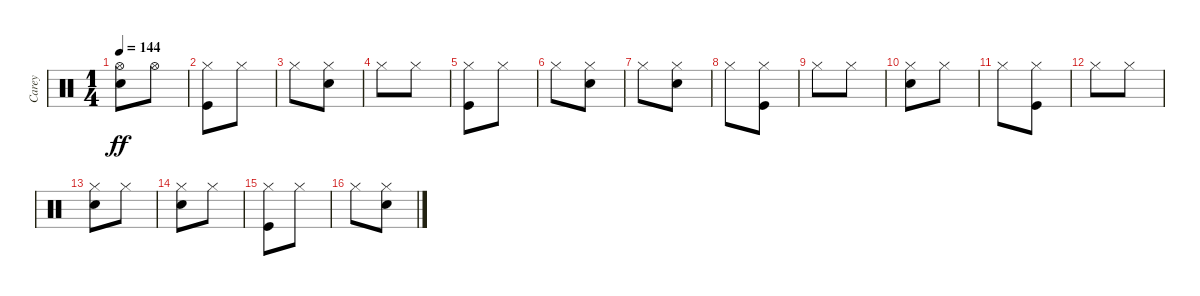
\track ("Carey" "Carey") {instrument percussion}
\staff {score}
\articulation defaults
\ts (1 4)
\tempo 144
\clef neutral
\ks c
("Snare (hit) 2" "Hi-Hat (open)").8{dy ff} "Hi-Hat (open)".8 |
("Kick (hit)" "Hi-Hat (closed)").8 "Hi-Hat (closed)".8 |
"Hi-Hat (closed)".8 ("Snare (hit) 2" "Hi-Hat (closed)").8 |
"Hi-Hat (closed)".8 "Hi-Hat (closed)".8 |
("Kick (hit)" "Hi-Hat (closed)").8 "Hi-Hat (closed)".8 |
"Hi-Hat (closed)".8 ("Snare (hit) 2" "Hi-Hat (closed)").8 |
"Hi-Hat (closed)".8 ("Snare (hit) 2" "Hi-Hat (closed)").8 |
"Hi-Hat (closed)".8 ("Kick (hit)" "Hi-Hat (closed)").8 |
"Hi-Hat (closed)".8 "Hi-Hat (closed)".8 |
("Snare (hit) 2" "Hi-Hat (closed)").8 "Hi-Hat (closed)".8 |
"Hi-Hat (closed)".8 ("Kick (hit)" "Hi-Hat (closed)").8 |
"Hi-Hat (closed)".8 "Hi-Hat (closed)".8 |
("Snare (hit) 2" "Hi-Hat (closed)").8 "Hi-Hat (closed)".8 |
("Snare (hit) 2" "Hi-Hat (closed)").8 "Hi-Hat (closed)".8 |
("Kick (hit)" "Hi-Hat (closed)").8 "Hi-Hat (closed)".8 |
"Hi-Hat (closed)".8 ("Snare (hit) 2" "Hi-Hat (closed)").8
